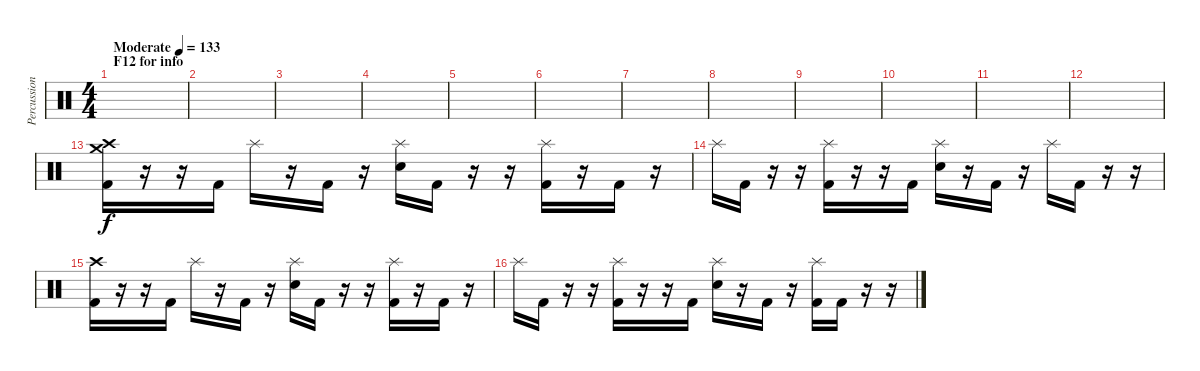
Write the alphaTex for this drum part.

\track ("Percussion" "Percussion") {instrument percussion}
\staff {score}
\articulation defaults
\ts (4 4)
\section ("" "F12 for info")
\tempo (133 "Moderate")
\clef neutral
\ks c
|
|
|
|
|
|
|
|
|
|
|
|
("Crash high (hit)" "Crash medium (hit)" "Kick (hit) 2").16 r.16 r.16 "Kick (hit) 2".16 "Splash (hit)".16 r.16 "Kick (hit) 2".16 r.16 ("Splash (hit)" "Electric Snare (hit)").16 "Kick (hit) 2".16 r.16 r.16 ("Splash (hit)" "Kick (hit) 2").16 r.16 "Kick (hit) 2".16 r.16 |
"Splash (hit)".16 "Kick (hit) 2".16 r.16 r.16 ("Splash (hit)" "Kick (hit) 2").16 r.16 r.16 "Kick (hit) 2".16 ("Splash (hit)" "Electric Snare (hit)").16 r.16 "Kick (hit) 2".16 r.16 "Splash (hit)".16 "Kick (hit) 2".16 r.16 r.16 |
("Crash high (hit)" "Kick (hit) 2").16 r.16 r.16 "Kick (hit) 2".16 "Splash (hit)".16 r.16 "Kick (hit) 2".16 r.16 ("Splash (hit)" "Electric Snare (hit)").16 "Kick (hit) 2".16 r.16 r.16 ("Splash (hit)" "Kick (hit) 2").16 r.16 "Kick (hit) 2".16 r.16 |
"Splash (hit)".16 "Kick (hit) 2".16 r.16 r.16 ("Splash (hit)" "Kick (hit) 2").16 r.16 r.16 "Kick (hit) 2".16 ("Splash (hit)" "Electric Snare (hit)").16 r.16 "Kick (hit) 2".16 r.16 ("Splash (hit)" "Kick (hit) 2").16 "Kick (hit) 2".16 r.16 r.16
